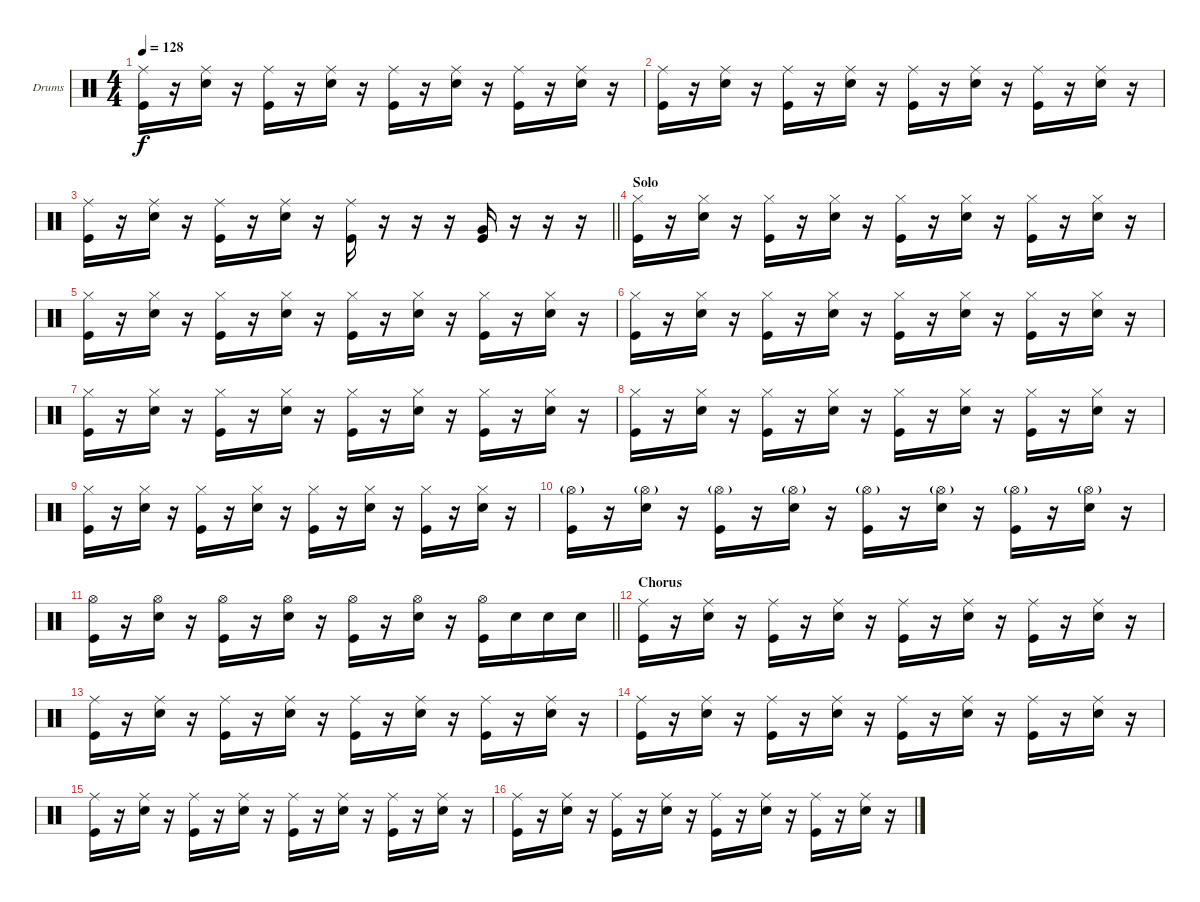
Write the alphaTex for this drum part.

\bracketExtendMode groupsimilarinstruments
\firstSystemTrackNameOrientation horizontal
\otherSystemsTrackNameOrientation horizontal
\track ("Drumkit" "Drums") {instrument percussion}
\staff {score}
\articulation defaults
\ts (4 4)
\tempo 128
\clef neutral
\ks c
("Kick (hit)" "Ride (middle)").16{dy f} r.16 ("Snare (hit) 2" "Ride (middle)").16 r.16 ("Kick (hit)" "Ride (middle)").16 r.16 ("Snare (hit) 2" "Ride (middle)").16 r.16 ("Kick (hit)" "Ride (middle)").16 r.16 ("Snare (hit) 2" "Ride (middle)").16 r.16 ("Kick (hit)" "Ride (middle)").16 r.16 ("Snare (hit) 2" "Ride (middle)").16 r.16 |
("Kick (hit)" "Ride (middle)").16 r.16 ("Snare (hit) 2" "Ride (middle)").16 r.16 ("Kick (hit)" "Ride (middle)").16 r.16 ("Snare (hit) 2" "Ride (middle)").16 r.16 ("Kick (hit)" "Ride (middle)").16 r.16 ("Snare (hit) 2" "Ride (middle)").16 r.16 ("Kick (hit)" "Ride (middle)").16 r.16 ("Snare (hit) 2" "Ride (middle)").16 r.16 |
\barLineRight lightlight
("Kick (hit)" "Ride (middle)").16 r.16 ("Snare (hit) 2" "Ride (middle)").16 r.16 ("Kick (hit)" "Ride (middle)").16 r.16 ("Snare (hit) 2" "Ride (middle)").16 r.16 ("Kick (hit)" "Ride (middle)").16 r.16 r.16 r.16 ("Kick (hit)" "Very Low Tom (hit)").16 r.16 r.16 r.16 |
\section ("" "Solo")
("Kick (hit)" "Hi-Hat (closed)").16 r.16 ("Snare (hit) 2" "Hi-Hat (closed)").16 r.16 ("Kick (hit)" "Hi-Hat (closed)").16 r.16 ("Snare (hit) 2" "Hi-Hat (closed)").16 r.16 ("Kick (hit)" "Hi-Hat (closed)").16 r.16 ("Snare (hit) 2" "Hi-Hat (closed)").16 r.16 ("Kick (hit)" "Hi-Hat (closed)").16 r.16 ("Snare (hit) 2" "Hi-Hat (closed)").16 r.16 |
("Kick (hit)" "Hi-Hat (closed)").16 r.16 ("Snare (hit) 2" "Hi-Hat (closed)").16 r.16 ("Kick (hit)" "Hi-Hat (closed)").16 r.16 ("Snare (hit) 2" "Hi-Hat (closed)").16 r.16 ("Kick (hit)" "Hi-Hat (closed)").16 r.16 ("Snare (hit) 2" "Hi-Hat (closed)").16 r.16 ("Kick (hit)" "Hi-Hat (closed)").16 r.16 ("Snare (hit) 2" "Hi-Hat (closed)").16 r.16 |
("Kick (hit)" "Hi-Hat (closed)").16 r.16 ("Snare (hit) 2" "Hi-Hat (closed)").16 r.16 ("Kick (hit)" "Hi-Hat (closed)").16 r.16 ("Snare (hit) 2" "Hi-Hat (closed)").16 r.16 ("Kick (hit)" "Hi-Hat (closed)").16 r.16 ("Snare (hit) 2" "Hi-Hat (closed)").16 r.16 ("Kick (hit)" "Hi-Hat (closed)").16 r.16 ("Snare (hit) 2" "Hi-Hat (closed)").16 r.16 |
("Kick (hit)" "Hi-Hat (closed)").16 r.16 ("Snare (hit) 2" "Hi-Hat (closed)").16 r.16 ("Kick (hit)" "Hi-Hat (closed)").16 r.16 ("Snare (hit) 2" "Hi-Hat (closed)").16 r.16 ("Kick (hit)" "Hi-Hat (closed)").16 r.16 ("Snare (hit) 2" "Hi-Hat (closed)").16 r.16 ("Kick (hit)" "Hi-Hat (closed)").16 r.16 ("Snare (hit) 2" "Hi-Hat (closed)").16 r.16 |
("Kick (hit)" "Hi-Hat (closed)").16 r.16 ("Snare (hit) 2" "Hi-Hat (closed)").16 r.16 ("Kick (hit)" "Hi-Hat (closed)").16 r.16 ("Snare (hit) 2" "Hi-Hat (closed)").16 r.16 ("Kick (hit)" "Hi-Hat (closed)").16 r.16 ("Snare (hit) 2" "Hi-Hat (closed)").16 r.16 ("Kick (hit)" "Hi-Hat (closed)").16 r.16 ("Snare (hit) 2" "Hi-Hat (closed)").16 r.16 |
("Kick (hit)" "Hi-Hat (closed)").16 r.16 ("Snare (hit) 2" "Hi-Hat (closed)").16 r.16 ("Kick (hit)" "Hi-Hat (closed)").16 r.16 ("Snare (hit) 2" "Hi-Hat (closed)").16 r.16 ("Kick (hit)" "Hi-Hat (closed)").16 r.16 ("Snare (hit) 2" "Hi-Hat (closed)").16 r.16 ("Kick (hit)" "Hi-Hat (closed)").16 r.16 ("Snare (hit) 2" "Hi-Hat (closed)").16 r.16 |
("Kick (hit)" "Hi-Hat (open)"{g}).16 r.16 ("Snare (hit) 2" "Hi-Hat (open)"{g}).16 r.16 ("Kick (hit)" "Hi-Hat (open)"{g}).16 r.16 ("Snare (hit) 2" "Hi-Hat (open)"{g}).16 r.16 ("Kick (hit)" "Hi-Hat (open)"{g}).16 r.16 ("Snare (hit) 2" "Hi-Hat (open)"{g}).16 r.16 ("Kick (hit)" "Hi-Hat (open)"{g}).16 r.16 ("Snare (hit) 2" "Hi-Hat (open)"{g}).16 r.16 |
\barLineRight lightlight
("Kick (hit)" "Hi-Hat (open)").16 r.16 ("Snare (hit) 2" "Hi-Hat (open)").16 r.16 ("Kick (hit)" "Hi-Hat (open)").16 r.16 ("Snare (hit) 2" "Hi-Hat (open)").16 r.16 ("Kick (hit)" "Hi-Hat (open)").16 r.16 ("Snare (hit) 2" "Hi-Hat (open)").16 r.16 ("Kick (hit)" "Hi-Hat (open)").16 "Snare (hit) 2".16 "Snare (hit) 2".16 "Snare (hit) 2".16 |
\section ("" "Chorus")
("Kick (hit)" "Ride (middle)").16 r.16 ("Snare (hit) 2" "Ride (middle)").16 r.16 ("Kick (hit)" "Ride (middle)").16 r.16 ("Snare (hit) 2" "Ride (middle)").16 r.16 ("Kick (hit)" "Ride (middle)").16 r.16 ("Snare (hit) 2" "Ride (middle)").16 r.16 ("Kick (hit)" "Ride (middle)").16 r.16 ("Snare (hit) 2" "Ride (middle)").16 r.16 |
("Kick (hit)" "Ride (middle)").16 r.16 ("Snare (hit) 2" "Ride (middle)").16 r.16 ("Kick (hit)" "Ride (middle)").16 r.16 ("Snare (hit) 2" "Ride (middle)").16 r.16 ("Kick (hit)" "Ride (middle)").16 r.16 ("Snare (hit) 2" "Ride (middle)").16 r.16 ("Kick (hit)" "Ride (middle)").16 r.16 ("Snare (hit) 2" "Ride (middle)").16 r.16 |
("Kick (hit)" "Ride (middle)").16 r.16 ("Snare (hit) 2" "Ride (middle)").16 r.16 ("Kick (hit)" "Ride (middle)").16 r.16 ("Snare (hit) 2" "Ride (middle)").16 r.16 ("Kick (hit)" "Ride (middle)").16 r.16 ("Snare (hit) 2" "Ride (middle)").16 r.16 ("Kick (hit)" "Ride (middle)").16 r.16 ("Snare (hit) 2" "Ride (middle)").16 r.16 |
("Kick (hit)" "Ride (middle)").16 r.16 ("Snare (hit) 2" "Ride (middle)").16 r.16 ("Kick (hit)" "Ride (middle)").16 r.16 ("Snare (hit) 2" "Ride (middle)").16 r.16 ("Kick (hit)" "Ride (middle)").16 r.16 ("Snare (hit) 2" "Ride (middle)").16 r.16 ("Kick (hit)" "Ride (middle)").16 r.16 ("Snare (hit) 2" "Ride (middle)").16 r.16 |
("Kick (hit)" "Ride (middle)").16 r.16 ("Snare (hit) 2" "Ride (middle)").16 r.16 ("Kick (hit)" "Ride (middle)").16 r.16 ("Snare (hit) 2" "Ride (middle)").16 r.16 ("Kick (hit)" "Ride (middle)").16 r.16 ("Snare (hit) 2" "Ride (middle)").16 r.16 ("Kick (hit)" "Ride (middle)").16 r.16 ("Snare (hit) 2" "Ride (middle)").16 r.16
